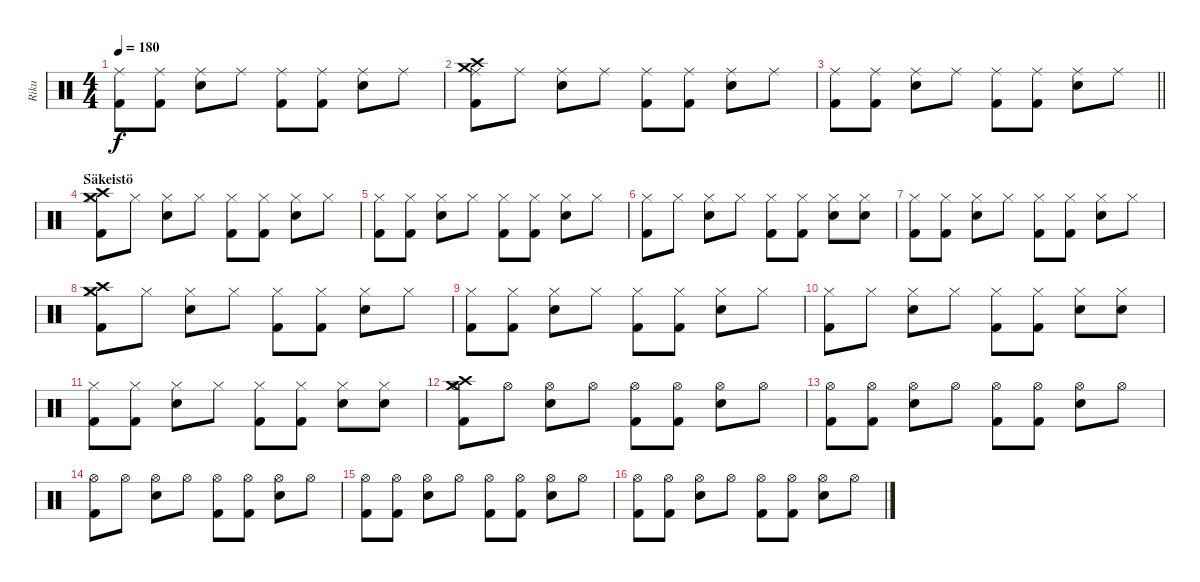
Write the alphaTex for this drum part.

\track ("Riku" "Riku") {instrument percussion}
\staff {score}
\articulation defaults
\ts (4 4)
\tempo 180
\clef neutral
\ks c
("Kick (hit) 2" "Ride (middle)").8{dy f} ("Kick (hit) 2" "Ride (middle)").8 ("Snare (hit) 2" "Ride (middle)").8 "Ride (middle)".8 ("Kick (hit) 2" "Ride (middle)").8 ("Kick (hit) 2" "Ride (middle)").8 ("Snare (hit) 2" "Ride (middle)").8 "Ride (middle)".8 |
("Kick (hit) 2" "Ride (middle)" "Crash medium (hit)" "Crash high (hit)").8 "Ride (middle)".8 ("Snare (hit) 2" "Ride (middle)").8 "Ride (middle)".8 ("Kick (hit) 2" "Ride (middle)").8 ("Kick (hit) 2" "Ride (middle)").8 ("Snare (hit) 2" "Ride (middle)").8 "Ride (middle)".8 |
\barLineRight lightlight
("Kick (hit) 2" "Ride (middle)").8 ("Kick (hit) 2" "Ride (middle)").8 ("Snare (hit) 2" "Ride (middle)").8 "Ride (middle)".8 ("Kick (hit) 2" "Ride (middle)").8 ("Kick (hit) 2" "Ride (middle)").8 ("Snare (hit) 2" "Ride (middle)").8 "Ride (middle)".8 |
\section ("" "Säkeistö")
("Kick (hit) 2" "Hi-Hat (closed)" "Crash medium (hit)" "Crash high (hit)").8{volume 13} "Hi-Hat (closed)".8 ("Snare (hit) 2" "Hi-Hat (closed)").8 "Hi-Hat (closed)".8 ("Kick (hit) 2" "Hi-Hat (closed)").8 ("Kick (hit) 2" "Hi-Hat (closed)").8 ("Snare (hit) 2" "Hi-Hat (closed)").8 "Hi-Hat (closed)".8 |
("Kick (hit) 2" "Hi-Hat (closed)").8 ("Kick (hit) 2" "Hi-Hat (closed)").8 ("Snare (hit) 2" "Hi-Hat (closed)").8 "Hi-Hat (closed)".8 ("Kick (hit) 2" "Hi-Hat (closed)").8 ("Kick (hit) 2" "Hi-Hat (closed)").8 ("Snare (hit) 2" "Hi-Hat (closed)").8 "Hi-Hat (closed)".8 |
("Kick (hit) 2" "Hi-Hat (closed)").8 "Hi-Hat (closed)".8 ("Snare (hit) 2" "Hi-Hat (closed)").8 "Hi-Hat (closed)".8 ("Kick (hit) 2" "Hi-Hat (closed)").8 ("Kick (hit) 2" "Hi-Hat (closed)").8 ("Snare (hit) 2" "Hi-Hat (closed)").8 ("Snare (hit) 2" "Hi-Hat (closed)").8 |
("Kick (hit) 2" "Hi-Hat (closed)").8 ("Kick (hit) 2" "Hi-Hat (closed)").8 ("Snare (hit) 2" "Hi-Hat (closed)").8 "Hi-Hat (closed)".8 ("Kick (hit) 2" "Hi-Hat (closed)").8 ("Kick (hit) 2" "Hi-Hat (closed)").8 ("Snare (hit) 2" "Hi-Hat (closed)").8 "Hi-Hat (closed)".8 |
("Kick (hit) 2" "Hi-Hat (closed)" "Crash medium (hit)" "Crash high (hit)").8 "Hi-Hat (closed)".8 ("Snare (hit) 2" "Hi-Hat (closed)").8 "Hi-Hat (closed)".8 ("Kick (hit) 2" "Hi-Hat (closed)").8 ("Kick (hit) 2" "Hi-Hat (closed)").8 ("Snare (hit) 2" "Hi-Hat (closed)").8 "Hi-Hat (closed)".8 |
("Kick (hit) 2" "Hi-Hat (closed)").8 ("Kick (hit) 2" "Hi-Hat (closed)").8 ("Snare (hit) 2" "Hi-Hat (closed)").8 "Hi-Hat (closed)".8 ("Kick (hit) 2" "Hi-Hat (closed)").8 ("Kick (hit) 2" "Hi-Hat (closed)").8 ("Snare (hit) 2" "Hi-Hat (closed)").8 "Hi-Hat (closed)".8 |
("Kick (hit) 2" "Hi-Hat (closed)").8 "Hi-Hat (closed)".8 ("Snare (hit) 2" "Hi-Hat (closed)").8 "Hi-Hat (closed)".8 ("Kick (hit) 2" "Hi-Hat (closed)").8 ("Kick (hit) 2" "Hi-Hat (closed)").8 ("Snare (hit) 2" "Hi-Hat (closed)").8 ("Snare (hit) 2" "Hi-Hat (closed)").8 |
("Kick (hit) 2" "Hi-Hat (closed)").8 ("Kick (hit) 2" "Hi-Hat (closed)").8 ("Snare (hit) 2" "Hi-Hat (closed)").8 "Hi-Hat (closed)".8 ("Kick (hit) 2" "Hi-Hat (closed)").8 ("Kick (hit) 2" "Hi-Hat (closed)").8 ("Snare (hit) 2" "Hi-Hat (closed)").8 ("Snare (hit) 2" "Hi-Hat (closed)").8 |
("Kick (hit) 2" "Hi-Hat (open)" "Crash medium (hit)" "Crash high (hit)").8 "Hi-Hat (open)".8 ("Snare (hit) 2" "Hi-Hat (open)").8 "Hi-Hat (open)".8 ("Kick (hit) 2" "Hi-Hat (open)").8 ("Kick (hit) 2" "Hi-Hat (open)").8 ("Snare (hit) 2" "Hi-Hat (open)").8 "Hi-Hat (open)".8 |
("Kick (hit) 2" "Hi-Hat (open)").8 ("Kick (hit) 2" "Hi-Hat (open)").8 ("Snare (hit) 2" "Hi-Hat (open)").8 "Hi-Hat (open)".8 ("Kick (hit) 2" "Hi-Hat (open)").8 ("Kick (hit) 2" "Hi-Hat (open)").8 ("Snare (hit) 2" "Hi-Hat (open)").8 "Hi-Hat (open)".8 |
("Kick (hit) 2" "Hi-Hat (open)").8 "Hi-Hat (open)".8 ("Snare (hit) 2" "Hi-Hat (open)").8 "Hi-Hat (open)".8 ("Kick (hit) 2" "Hi-Hat (open)").8 ("Kick (hit) 2" "Hi-Hat (open)").8 ("Snare (hit) 2" "Hi-Hat (open)").8 "Hi-Hat (open)".8 |
("Kick (hit) 2" "Hi-Hat (open)").8 ("Kick (hit) 2" "Hi-Hat (open)").8 ("Snare (hit) 2" "Hi-Hat (open)").8 "Hi-Hat (open)".8 ("Kick (hit) 2" "Hi-Hat (open)").8 ("Kick (hit) 2" "Hi-Hat (open)").8 ("Snare (hit) 2" "Hi-Hat (open)").8 "Hi-Hat (open)".8 |
("Kick (hit) 2" "Hi-Hat (open)").8 ("Kick (hit) 2" "Hi-Hat (open)").8 ("Snare (hit) 2" "Hi-Hat (open)").8 "Hi-Hat (open)".8 ("Kick (hit) 2" "Hi-Hat (open)").8 ("Kick (hit) 2" "Hi-Hat (open)").8 ("Snare (hit) 2" "Hi-Hat (open)").8 "Hi-Hat (open)".8
